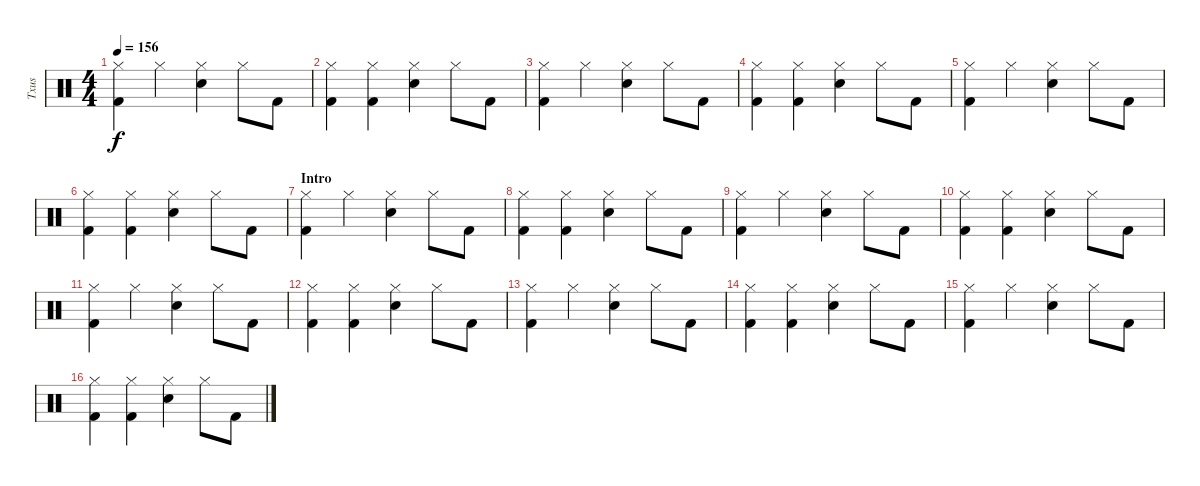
\track ("Txus" "Txus") {instrument percussion}
\staff {score}
\articulation defaults
\ts (4 4)
\tempo 156
\clef neutral
\ks c
("Hi-Hat (closed)" "Kick (hit) 2").4{dy f} "Hi-Hat (closed)".4 ("Snare (hit) 2" "Hi-Hat (closed)").4 "Hi-Hat (closed)".8 "Kick (hit) 2".8 |
("Kick (hit) 2" "Hi-Hat (closed)").4 ("Hi-Hat (closed)" "Kick (hit) 2").4 ("Hi-Hat (closed)" "Snare (hit) 2").4 "Hi-Hat (closed)".8 "Kick (hit) 2".8 |
("Hi-Hat (closed)" "Kick (hit) 2").4 "Hi-Hat (closed)".4 ("Snare (hit) 2" "Hi-Hat (closed)").4 "Hi-Hat (closed)".8 "Kick (hit) 2".8 |
("Kick (hit) 2" "Hi-Hat (closed)").4 ("Hi-Hat (closed)" "Kick (hit) 2").4 ("Hi-Hat (closed)" "Snare (hit) 2").4 "Hi-Hat (closed)".8 "Kick (hit) 2".8 |
("Hi-Hat (closed)" "Kick (hit) 2").4 "Hi-Hat (closed)".4 ("Snare (hit) 2" "Hi-Hat (closed)").4 "Hi-Hat (closed)".8 "Kick (hit) 2".8 |
("Kick (hit) 2" "Hi-Hat (closed)").4 ("Hi-Hat (closed)" "Kick (hit) 2").4 ("Hi-Hat (closed)" "Snare (hit) 2").4 "Hi-Hat (closed)".8 "Kick (hit) 2".8 |
\section ("" "Intro")
("Hi-Hat (closed)" "Kick (hit) 2").4 "Hi-Hat (closed)".4 ("Snare (hit) 2" "Hi-Hat (closed)").4 "Hi-Hat (closed)".8 "Kick (hit) 2".8 |
("Kick (hit) 2" "Hi-Hat (closed)").4 ("Hi-Hat (closed)" "Kick (hit) 2").4 ("Hi-Hat (closed)" "Snare (hit) 2").4 "Hi-Hat (closed)".8 "Kick (hit) 2".8 |
("Hi-Hat (closed)" "Kick (hit) 2").4 "Hi-Hat (closed)".4 ("Snare (hit) 2" "Hi-Hat (closed)").4 "Hi-Hat (closed)".8 "Kick (hit) 2".8 |
("Kick (hit) 2" "Hi-Hat (closed)").4 ("Hi-Hat (closed)" "Kick (hit) 2").4 ("Hi-Hat (closed)" "Snare (hit) 2").4 "Hi-Hat (closed)".8 "Kick (hit) 2".8 |
("Hi-Hat (closed)" "Kick (hit) 2").4 "Hi-Hat (closed)".4 ("Snare (hit) 2" "Hi-Hat (closed)").4 "Hi-Hat (closed)".8 "Kick (hit) 2".8 |
("Kick (hit) 2" "Hi-Hat (closed)").4 ("Hi-Hat (closed)" "Kick (hit) 2").4 ("Hi-Hat (closed)" "Snare (hit) 2").4 "Hi-Hat (closed)".8 "Kick (hit) 2".8 |
("Hi-Hat (closed)" "Kick (hit) 2").4 "Hi-Hat (closed)".4 ("Snare (hit) 2" "Hi-Hat (closed)").4 "Hi-Hat (closed)".8 "Kick (hit) 2".8 |
("Kick (hit) 2" "Hi-Hat (closed)").4 ("Hi-Hat (closed)" "Kick (hit) 2").4 ("Hi-Hat (closed)" "Snare (hit) 2").4 "Hi-Hat (closed)".8 "Kick (hit) 2".8 |
("Hi-Hat (closed)" "Kick (hit) 2").4 "Hi-Hat (closed)".4 ("Snare (hit) 2" "Hi-Hat (closed)").4 "Hi-Hat (closed)".8 "Kick (hit) 2".8 |
("Kick (hit) 2" "Hi-Hat (closed)").4 ("Hi-Hat (closed)" "Kick (hit) 2").4 ("Hi-Hat (closed)" "Snare (hit) 2").4 "Hi-Hat (closed)".8 "Kick (hit) 2".8
